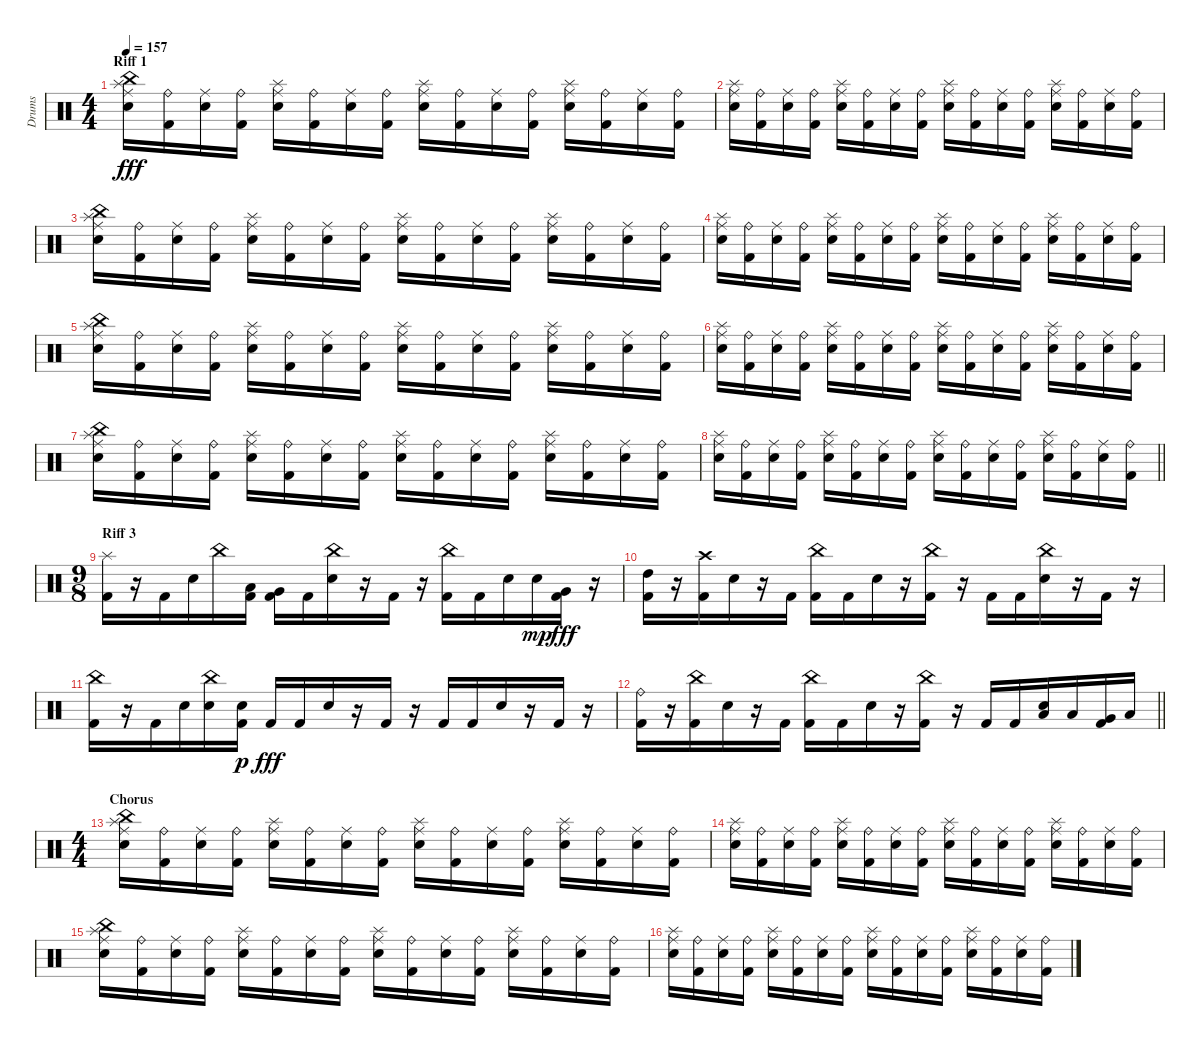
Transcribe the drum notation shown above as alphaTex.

\track ("Drums" "Drums") {instrument percussion}
\staff {score}
\articulation defaults
\ts (4 4)
\section ("" "Riff 1")
\tempo 157
\clef neutral
\ks c
("Snare (hit) 2" "Ride (middle)" "China (hit)" "Splash (hit)").16{dy fff} ("Kick (hit) 2" "Ride (bell)").16 ("Snare (hit) 2" "Ride (middle)").16 ("Kick (hit) 2" "Ride (bell)").16 ("Snare (hit) 2" "Ride (middle)" "Splash (hit)").16 ("Kick (hit) 2" "Ride (bell)").16 ("Snare (hit) 2" "Ride (middle)").16 ("Kick (hit) 2" "Ride (bell)").16 ("Snare (hit) 2" "Ride (middle)" "Splash (hit)").16 ("Kick (hit) 2" "Ride (bell)").16 ("Snare (hit) 2" "Ride (middle)").16 ("Kick (hit) 2" "Ride (bell)").16 ("Snare (hit) 2" "Ride (middle)" "Splash (hit)").16 ("Kick (hit) 2" "Ride (bell)").16 ("Snare (hit) 2" "Ride (middle)").16 ("Kick (hit) 2" "Ride (bell)").16 |
("Snare (hit) 2" "Ride (middle)" "Splash (hit)").16 ("Kick (hit) 2" "Ride (bell)").16 ("Snare (hit) 2" "Ride (middle)").16 ("Kick (hit) 2" "Ride (bell)").16 ("Snare (hit) 2" "Ride (middle)" "Splash (hit)").16 ("Kick (hit) 2" "Ride (bell)").16 ("Snare (hit) 2" "Ride (middle)").16 ("Kick (hit) 2" "Ride (bell)").16 ("Snare (hit) 2" "Ride (middle)" "Splash (hit)").16 ("Kick (hit) 2" "Ride (bell)").16 ("Snare (hit) 2" "Ride (middle)").16 ("Kick (hit) 2" "Ride (bell)").16 ("Snare (hit) 2" "Ride (middle)" "Splash (hit)").16 ("Kick (hit) 2" "Ride (bell)").16 ("Snare (hit) 2" "Ride (middle)").16 ("Kick (hit) 2" "Ride (bell)").16 |
("Snare (hit) 2" "Ride (middle)" "China (hit)" "Splash (hit)").16 ("Kick (hit) 2" "Ride (bell)").16 ("Snare (hit) 2" "Ride (middle)").16 ("Kick (hit) 2" "Ride (bell)").16 ("Snare (hit) 2" "Ride (middle)" "Splash (hit)").16 ("Kick (hit) 2" "Ride (bell)").16 ("Snare (hit) 2" "Ride (middle)").16 ("Kick (hit) 2" "Ride (bell)").16 ("Snare (hit) 2" "Ride (middle)" "Splash (hit)").16 ("Kick (hit) 2" "Ride (bell)").16 ("Snare (hit) 2" "Ride (middle)").16 ("Kick (hit) 2" "Ride (bell)").16 ("Snare (hit) 2" "Ride (middle)" "Splash (hit)").16 ("Kick (hit) 2" "Ride (bell)").16 ("Snare (hit) 2" "Ride (middle)").16 ("Kick (hit) 2" "Ride (bell)").16 |
("Snare (hit) 2" "Ride (middle)" "Splash (hit)").16 ("Kick (hit) 2" "Ride (bell)").16 ("Snare (hit) 2" "Ride (middle)").16 ("Kick (hit) 2" "Ride (bell)").16 ("Snare (hit) 2" "Ride (middle)" "Splash (hit)").16 ("Kick (hit) 2" "Ride (bell)").16 ("Snare (hit) 2" "Ride (middle)").16 ("Kick (hit) 2" "Ride (bell)").16 ("Snare (hit) 2" "Ride (middle)" "Splash (hit)").16 ("Kick (hit) 2" "Ride (bell)").16 ("Snare (hit) 2" "Ride (middle)").16 ("Kick (hit) 2" "Ride (bell)").16 ("Snare (hit) 2" "Ride (middle)" "Splash (hit)").16 ("Kick (hit) 2" "Ride (bell)").16 ("Snare (hit) 2" "Ride (middle)").16 ("Kick (hit) 2" "Ride (bell)").16 |
("Snare (hit) 2" "Ride (middle)" "China (hit)" "Splash (hit)").16 ("Kick (hit) 2" "Ride (bell)").16 ("Snare (hit) 2" "Ride (middle)").16 ("Kick (hit) 2" "Ride (bell)").16 ("Snare (hit) 2" "Ride (middle)" "Splash (hit)").16 ("Kick (hit) 2" "Ride (bell)").16 ("Snare (hit) 2" "Ride (middle)").16 ("Kick (hit) 2" "Ride (bell)").16 ("Snare (hit) 2" "Ride (middle)" "Splash (hit)").16 ("Kick (hit) 2" "Ride (bell)").16 ("Snare (hit) 2" "Ride (middle)").16 ("Kick (hit) 2" "Ride (bell)").16 ("Snare (hit) 2" "Ride (middle)" "Splash (hit)").16 ("Kick (hit) 2" "Ride (bell)").16 ("Snare (hit) 2" "Ride (middle)").16 ("Kick (hit) 2" "Ride (bell)").16 |
("Snare (hit) 2" "Ride (middle)" "Splash (hit)").16 ("Kick (hit) 2" "Ride (bell)").16 ("Snare (hit) 2" "Ride (middle)").16 ("Kick (hit) 2" "Ride (bell)").16 ("Snare (hit) 2" "Ride (middle)" "Splash (hit)").16 ("Kick (hit) 2" "Ride (bell)").16 ("Snare (hit) 2" "Ride (middle)").16 ("Kick (hit) 2" "Ride (bell)").16 ("Snare (hit) 2" "Ride (middle)" "Splash (hit)").16 ("Kick (hit) 2" "Ride (bell)").16 ("Snare (hit) 2" "Ride (middle)").16 ("Kick (hit) 2" "Ride (bell)").16 ("Snare (hit) 2" "Ride (middle)" "Splash (hit)").16 ("Kick (hit) 2" "Ride (bell)").16 ("Snare (hit) 2" "Ride (middle)").16 ("Kick (hit) 2" "Ride (bell)").16 |
("Snare (hit) 2" "Ride (middle)" "China (hit)" "Splash (hit)").16 ("Kick (hit) 2" "Ride (bell)").16 ("Snare (hit) 2" "Ride (middle)").16 ("Kick (hit) 2" "Ride (bell)").16 ("Snare (hit) 2" "Ride (middle)" "Splash (hit)").16 ("Kick (hit) 2" "Ride (bell)").16 ("Snare (hit) 2" "Ride (middle)").16 ("Kick (hit) 2" "Ride (bell)").16 ("Snare (hit) 2" "Ride (middle)" "Splash (hit)").16 ("Kick (hit) 2" "Ride (bell)").16 ("Snare (hit) 2" "Ride (middle)").16 ("Kick (hit) 2" "Ride (bell)").16 ("Snare (hit) 2" "Ride (middle)" "Splash (hit)").16 ("Kick (hit) 2" "Ride (bell)").16 ("Snare (hit) 2" "Ride (middle)").16 ("Kick (hit) 2" "Ride (bell)").16 |
\barLineRight lightlight
("Snare (hit) 2" "Ride (middle)" "Splash (hit)").16 ("Kick (hit) 2" "Ride (bell)").16 ("Snare (hit) 2" "Ride (middle)").16 ("Kick (hit) 2" "Ride (bell)").16 ("Snare (hit) 2" "Ride (middle)" "Splash (hit)").16 ("Kick (hit) 2" "Ride (bell)").16 ("Snare (hit) 2" "Ride (middle)").16 ("Kick (hit) 2" "Ride (bell)").16 ("Snare (hit) 2" "Ride (middle)" "Splash (hit)").16 ("Kick (hit) 2" "Ride (bell)").16 ("Snare (hit) 2" "Ride (middle)").16 ("Kick (hit) 2" "Ride (bell)").16 ("Snare (hit) 2" "Ride (middle)" "Splash (hit)").16 ("Kick (hit) 2" "Ride (bell)").16 ("Snare (hit) 2" "Ride (middle)").16 ("Kick (hit) 2" "Ride (bell)").16 |
\ts (9 8)
\section ("" "Riff 3")
("Kick (hit) 2" "Splash (hit)").16 r.16 "Kick (hit) 2".16 "Snare (hit) 2".16 "China (hit)".16 ("Kick (hit) 2" "Low Tom (hit)").16 ("Kick (hit) 2" "Very Low Tom (hit)").16 "Kick (hit) 2".16 ("Snare (hit) 2" "China (hit)").16 r.16 "Kick (hit) 2".16 r.16 ("Kick (hit) 2" "China (hit)").16 "Kick (hit) 2".16 "Snare (hit) 2".16 "Snare (hit) 2".16{dy mp} ("Kick (hit) 2" "Very Low Tom (hit)").16{dy fff} r.16 |
("Kick (hit) 2" "High Tom (hit)").16 r.16 ("Kick (hit) 2" "Crash high (hit)").16 "Snare (hit) 2".16 r.16 "Kick (hit) 2".16 ("Kick (hit) 2" "China (hit)").16 "Kick (hit) 2".16 "Snare (hit) 2".16 r.16 ("Kick (hit) 2" "China (hit)").16 r.16 "Kick (hit) 2".16 "Kick (hit) 2".16 ("Snare (hit) 2" "China (hit)").16 r.16 "Kick (hit) 2".16 r.16 |
("Kick (hit) 2" "China (hit)").16 r.16 "Kick (hit) 2".16 "Snare (hit) 2".16 ("Snare (hit) 2" "China (hit)").16 ("Kick (hit) 2" "Snare (hit) 2").16{dy p} "Kick (hit) 2".16{dy fff} "Kick (hit) 2".16 "Snare (hit) 2".16 r.16 "Kick (hit) 2".16 r.16 "Kick (hit) 2".16 "Kick (hit) 2".16 "Snare (hit) 2".16 r.16 "Kick (hit) 2".16 r.16 |
\barLineRight lightlight
("Kick (hit) 2" "Ride (bell)").16 r.16 ("Kick (hit) 2" "China (hit)").16 "Snare (hit) 2".16 r.16 "Kick (hit) 2".16 ("Kick (hit) 2" "China (hit)").16 "Kick (hit) 2".16 "Snare (hit) 2".16 r.16 ("Kick (hit) 2" "China (hit)").16 r.16 "Kick (hit) 2".16 "Kick (hit) 2".16 ("Snare (hit) 2" "Low Tom (hit)").16 "Low Tom (hit)".16 ("Kick (hit) 2" "Very Low Tom (hit)").16 "Low Floor Tom (hit)".16 |
\ts (4 4)
\section ("" "Chorus")
("Snare (hit) 2" "Ride (middle)" "China (hit)" "Splash (hit)").16 ("Kick (hit) 2" "Ride (bell)").16 ("Snare (hit) 2" "Ride (middle)").16 ("Kick (hit) 2" "Ride (bell)").16 ("Snare (hit) 2" "Ride (middle)" "Splash (hit)").16 ("Kick (hit) 2" "Ride (bell)").16 ("Snare (hit) 2" "Ride (middle)").16 ("Kick (hit) 2" "Ride (bell)").16 ("Snare (hit) 2" "Ride (middle)" "Splash (hit)").16 ("Kick (hit) 2" "Ride (bell)").16 ("Snare (hit) 2" "Ride (middle)").16 ("Kick (hit) 2" "Ride (bell)").16 ("Snare (hit) 2" "Ride (middle)" "Splash (hit)").16 ("Kick (hit) 2" "Ride (bell)").16 ("Snare (hit) 2" "Ride (middle)").16 ("Kick (hit) 2" "Ride (bell)").16 |
("Snare (hit) 2" "Ride (middle)" "Splash (hit)").16 ("Kick (hit) 2" "Ride (bell)").16 ("Snare (hit) 2" "Ride (middle)").16 ("Kick (hit) 2" "Ride (bell)").16 ("Snare (hit) 2" "Ride (middle)" "Splash (hit)").16 ("Kick (hit) 2" "Ride (bell)").16 ("Snare (hit) 2" "Ride (middle)").16 ("Kick (hit) 2" "Ride (bell)").16 ("Snare (hit) 2" "Ride (middle)" "Splash (hit)").16 ("Kick (hit) 2" "Ride (bell)").16 ("Snare (hit) 2" "Ride (middle)").16 ("Kick (hit) 2" "Ride (bell)").16 ("Snare (hit) 2" "Ride (middle)" "Splash (hit)").16 ("Kick (hit) 2" "Ride (bell)").16 ("Snare (hit) 2" "Ride (middle)").16 ("Kick (hit) 2" "Ride (bell)").16 |
("Snare (hit) 2" "Ride (middle)" "China (hit)" "Splash (hit)").16 ("Kick (hit) 2" "Ride (bell)").16 ("Snare (hit) 2" "Ride (middle)").16 ("Kick (hit) 2" "Ride (bell)").16 ("Snare (hit) 2" "Ride (middle)" "Splash (hit)").16 ("Kick (hit) 2" "Ride (bell)").16 ("Snare (hit) 2" "Ride (middle)").16 ("Kick (hit) 2" "Ride (bell)").16 ("Snare (hit) 2" "Ride (middle)" "Splash (hit)").16 ("Kick (hit) 2" "Ride (bell)").16 ("Snare (hit) 2" "Ride (middle)").16 ("Kick (hit) 2" "Ride (bell)").16 ("Snare (hit) 2" "Ride (middle)" "Splash (hit)").16 ("Kick (hit) 2" "Ride (bell)").16 ("Snare (hit) 2" "Ride (middle)").16 ("Kick (hit) 2" "Ride (bell)").16 |
("Snare (hit) 2" "Ride (middle)" "Splash (hit)").16 ("Kick (hit) 2" "Ride (bell)").16 ("Snare (hit) 2" "Ride (middle)").16 ("Kick (hit) 2" "Ride (bell)").16 ("Snare (hit) 2" "Ride (middle)" "Splash (hit)").16 ("Kick (hit) 2" "Ride (bell)").16 ("Snare (hit) 2" "Ride (middle)").16 ("Kick (hit) 2" "Ride (bell)").16 ("Snare (hit) 2" "Ride (middle)" "Splash (hit)").16 ("Kick (hit) 2" "Ride (bell)").16 ("Snare (hit) 2" "Ride (middle)").16 ("Kick (hit) 2" "Ride (bell)").16 ("Snare (hit) 2" "Ride (middle)" "Splash (hit)").16 ("Kick (hit) 2" "Ride (bell)").16 ("Snare (hit) 2" "Ride (middle)").16 ("Kick (hit) 2" "Ride (bell)").16
